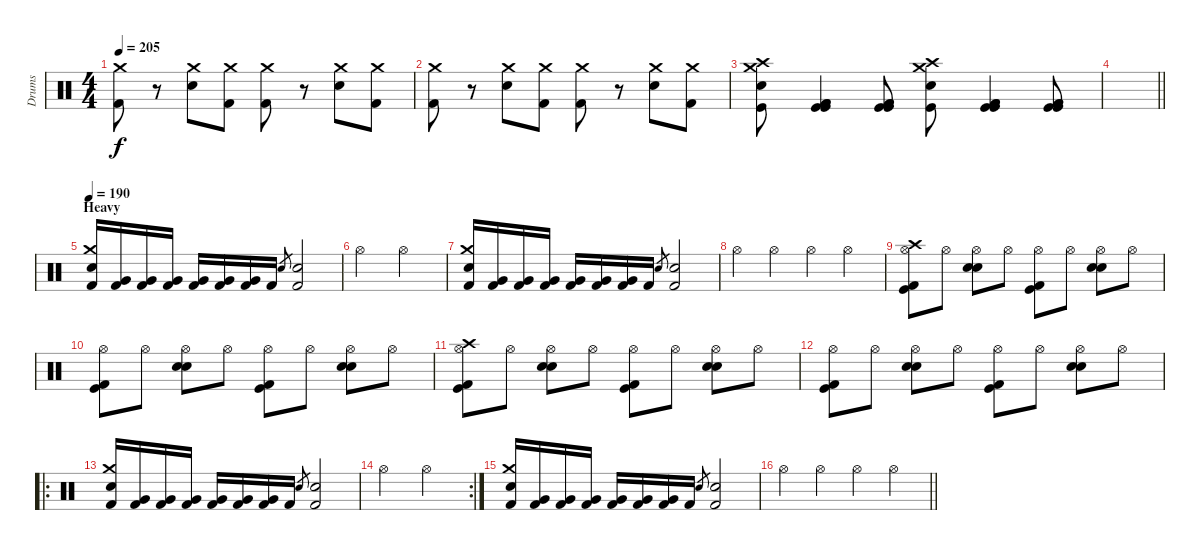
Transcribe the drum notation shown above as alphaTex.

\track ("Drums" "Drums") {instrument percussion}
\staff {score}
\articulation defaults
\ts (4 4)
\tempo 205
\clef neutral
\ks c
("Kick (hit) 2" "Crash medium (hit)").8{dy f} r.8 ("Snare (hit) 2" "Crash medium (hit)").8 ("Kick (hit) 2" "Crash medium (hit)").8 ("Kick (hit) 2" "Crash medium (hit)").8 r.8 ("Snare (hit) 2" "Crash medium (hit)").8 ("Kick (hit) 2" "Crash medium (hit)").8 |
("Kick (hit) 2" "Crash medium (hit)").8 r.8 ("Snare (hit) 2" "Crash medium (hit)").8 ("Kick (hit) 2" "Crash medium (hit)").8 ("Kick (hit) 2" "Crash medium (hit)").8 r.8 ("Snare (hit) 2" "Crash medium (hit)").8 ("Kick (hit) 2" "Crash medium (hit)").8 |
("Crash medium (hit)" "Crash high (hit)" "Electric Snare (hit)" "Kick (hit)").8 ("Kick (hit)" "Kick (hit)" "Kick (hit) 2" "Kick (hit) 2").4 ("Kick (hit)" "Kick (hit)" "Kick (hit) 2" "Kick (hit) 2").8 ("Crash medium (hit)" "Crash high (hit)" "Electric Snare (hit)" "Kick (hit)").8 ("Kick (hit)" "Kick (hit)" "Kick (hit) 2" "Kick (hit) 2").4 ("Kick (hit)" "Kick (hit)" "Kick (hit) 2" "Kick (hit) 2").8 |
\barLineRight lightlight
|
\section ("" "Heavy")
\tempo 190
("Crash medium (hit)" "Electric Snare (hit)" "Kick (hit) 2").16 ("Very Low Tom (hit)" "Kick (hit) 2").16 ("Very Low Tom (hit)" "Kick (hit) 2").16 ("Very Low Tom (hit)" "Kick (hit) 2").16 ("Very Low Tom (hit)" "Kick (hit) 2").16 ("Very Low Tom (hit)" "Kick (hit) 2").16 ("Very Low Tom (hit)" "Kick (hit) 2").16 "Kick (hit) 2".16 "Electric Snare (hit)".8{gr} ("Electric Snare (hit)" "Kick (hit) 2").2 |
"Hi-Hat (open)".2 "Hi-Hat (open)".2 |
("Crash medium (hit)" "Electric Snare (hit)" "Kick (hit) 2").16 ("Very Low Tom (hit)" "Kick (hit) 2").16 ("Very Low Tom (hit)" "Kick (hit) 2").16 ("Very Low Tom (hit)" "Kick (hit) 2").16 ("Very Low Tom (hit)" "Kick (hit) 2").16 ("Very Low Tom (hit)" "Kick (hit) 2").16 ("Very Low Tom (hit)" "Kick (hit) 2").16 "Kick (hit) 2".16 "Electric Snare (hit)".8{gr} ("Electric Snare (hit)" "Kick (hit) 2").2 |
"Hi-Hat (open)".4 "Hi-Hat (open)".4 "Hi-Hat (open)".4 "Hi-Hat (open)".4 |
("Crash high (hit)" "Hi-Hat (open)" "Kick (hit) 2" "Kick (hit)").8 "Hi-Hat (open)".8 ("Hi-Hat (open)" "Snare (hit) 2" "Electric Snare (hit)").8 "Hi-Hat (open)".8 ("Hi-Hat (open)" "Kick (hit) 2" "Kick (hit)").8 "Hi-Hat (open)".8 ("Hi-Hat (open)" "Snare (hit) 2" "Electric Snare (hit)").8 "Hi-Hat (open)".8 |
("Hi-Hat (open)" "Kick (hit) 2" "Kick (hit)").8 "Hi-Hat (open)".8 ("Hi-Hat (open)" "Snare (hit) 2" "Electric Snare (hit)").8 "Hi-Hat (open)".8 ("Hi-Hat (open)" "Kick (hit) 2" "Kick (hit)").8 "Hi-Hat (open)".8 ("Hi-Hat (open)" "Snare (hit) 2" "Electric Snare (hit)").8 "Hi-Hat (open)".8 |
("Crash high (hit)" "Hi-Hat (open)" "Kick (hit) 2" "Kick (hit)").8 "Hi-Hat (open)".8 ("Hi-Hat (open)" "Snare (hit) 2" "Electric Snare (hit)").8 "Hi-Hat (open)".8 ("Hi-Hat (open)" "Kick (hit) 2" "Kick (hit)").8 "Hi-Hat (open)".8 ("Hi-Hat (open)" "Snare (hit) 2" "Electric Snare (hit)").8 "Hi-Hat (open)".8 |
("Hi-Hat (open)" "Kick (hit) 2" "Kick (hit)").8 "Hi-Hat (open)".8 ("Hi-Hat (open)" "Snare (hit) 2" "Electric Snare (hit)").8 "Hi-Hat (open)".8 ("Hi-Hat (open)" "Kick (hit) 2" "Kick (hit)").8 "Hi-Hat (open)".8 ("Hi-Hat (open)" "Snare (hit) 2" "Electric Snare (hit)").8 "Hi-Hat (open)".8 |
\ro
("Crash medium (hit)" "Electric Snare (hit)" "Kick (hit) 2").16 ("Very Low Tom (hit)" "Kick (hit) 2").16 ("Very Low Tom (hit)" "Kick (hit) 2").16 ("Very Low Tom (hit)" "Kick (hit) 2").16 ("Very Low Tom (hit)" "Kick (hit) 2").16 ("Very Low Tom (hit)" "Kick (hit) 2").16 ("Very Low Tom (hit)" "Kick (hit) 2").16 "Kick (hit) 2".16 "Electric Snare (hit)".8{gr} ("Electric Snare (hit)" "Kick (hit) 2").2 |
\rc 2 "Hi-Hat (open)".2 "Hi-Hat (open)".2
|
("Crash medium (hit)" "Electric Snare (hit)" "Kick (hit) 2").16 ("Very Low Tom (hit)" "Kick (hit) 2").16 ("Very Low Tom (hit)" "Kick (hit) 2").16 ("Very Low Tom (hit)" "Kick (hit) 2").16 ("Very Low Tom (hit)" "Kick (hit) 2").16 ("Very Low Tom (hit)" "Kick (hit) 2").16 ("Very Low Tom (hit)" "Kick (hit) 2").16 "Kick (hit) 2".16 "Electric Snare (hit)".8{gr} ("Electric Snare (hit)" "Kick (hit) 2").2 |
\barLineRight lightlight "Hi-Hat (open)".4 "Hi-Hat (open)".4 "Hi-Hat (open)".4 "Hi-Hat (open)".4
